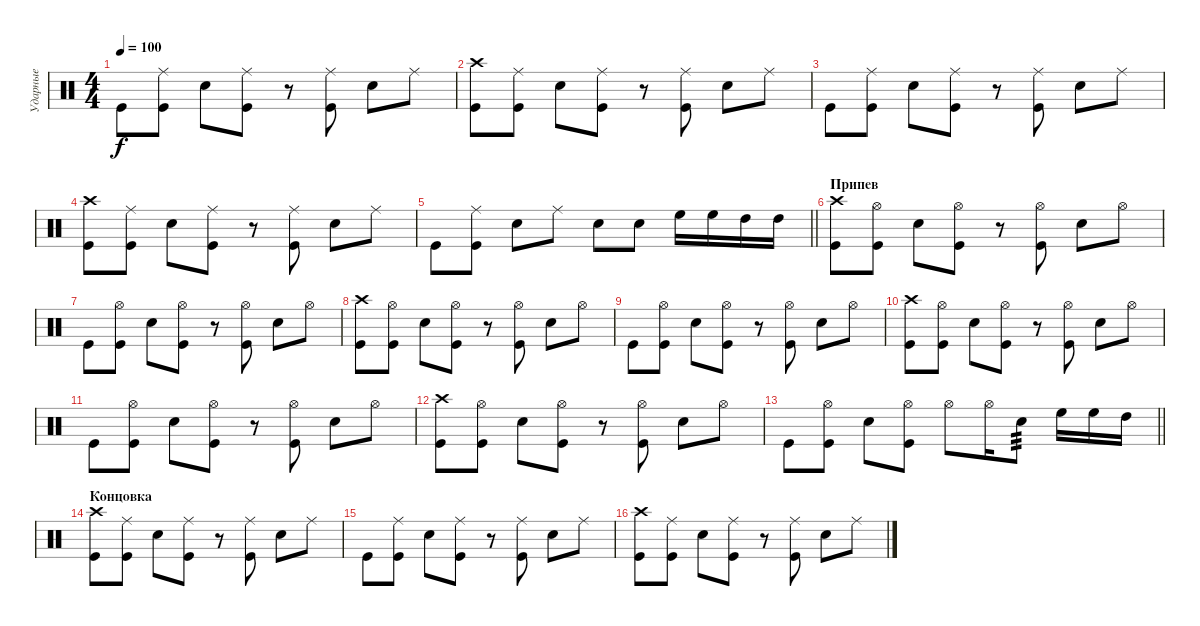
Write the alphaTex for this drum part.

\track ("Ударные" "Ударные") {instrument percussion}
\staff {score}
\articulation defaults
\ts (4 4)
\tempo 100
\clef neutral
\ks c "Kick (hit)".8{dy f}
("Kick (hit)" "Ride (middle)").8 "Snare (hit) 2".8 ("Ride (middle)" "Kick (hit)").8 r.8 ("Ride (middle)" "Kick (hit)").8 "Snare (hit) 2".8 "Ride (middle)".8 |
("Kick (hit)" "Crash high (hit)").8 ("Kick (hit)" "Ride (middle)").8 "Snare (hit) 2".8 ("Ride (middle)" "Kick (hit)").8 r.8 ("Ride (middle)" "Kick (hit)").8 "Snare (hit) 2".8 "Ride (middle)".8 |
"Kick (hit)".8 ("Kick (hit)" "Ride (middle)").8 "Snare (hit) 2".8 ("Ride (middle)" "Kick (hit)").8 r.8 ("Ride (middle)" "Kick (hit)").8 "Snare (hit) 2".8 "Ride (middle)".8 |
("Kick (hit)" "Crash high (hit)").8 ("Kick (hit)" "Ride (middle)").8 "Snare (hit) 2".8 ("Ride (middle)" "Kick (hit)").8 r.8 ("Ride (middle)" "Kick (hit)").8 "Snare (hit) 2".8 "Ride (middle)".8 |
\barLineRight lightlight "Kick (hit)".8
("Kick (hit)" "Ride (middle)").8 "Snare (hit) 2".8 "Ride (middle)".8 "Snare (hit) 2".8 "Snare (hit) 2".8 "High Floor Tom (hit)".16 "High Floor Tom (hit)".16 "High Tom (hit)".16 "High Tom (hit)".16 |
\section ("" "Припев")
("Crash high (hit)" "Kick (hit)").8 ("Hi-Hat (open)" "Kick (hit)").8 "Snare (hit) 2".8 ("Hi-Hat (open)" "Kick (hit)").8 r.8 ("Hi-Hat (open)" "Kick (hit)").8 "Snare (hit) 2".8 "Hi-Hat (open)".8 |
"Kick (hit)".8 ("Hi-Hat (open)" "Kick (hit)").8 "Snare (hit) 2".8 ("Hi-Hat (open)" "Kick (hit)").8 r.8 ("Hi-Hat (open)" "Kick (hit)").8 "Snare (hit) 2".8 "Hi-Hat (open)".8 |
("Crash high (hit)" "Kick (hit)").8 ("Hi-Hat (open)" "Kick (hit)").8 "Snare (hit) 2".8 ("Hi-Hat (open)" "Kick (hit)").8 r.8 ("Hi-Hat (open)" "Kick (hit)").8 "Snare (hit) 2".8 "Hi-Hat (open)".8 |
"Kick (hit)".8 ("Hi-Hat (open)" "Kick (hit)").8 "Snare (hit) 2".8 ("Hi-Hat (open)" "Kick (hit)").8 r.8 ("Hi-Hat (open)" "Kick (hit)").8 "Snare (hit) 2".8 "Hi-Hat (open)".8 |
("Crash high (hit)" "Kick (hit)").8 ("Hi-Hat (open)" "Kick (hit)").8 "Snare (hit) 2".8 ("Hi-Hat (open)" "Kick (hit)").8 r.8 ("Hi-Hat (open)" "Kick (hit)").8 "Snare (hit) 2".8 "Hi-Hat (open)".8 |
"Kick (hit)".8 ("Hi-Hat (open)" "Kick (hit)").8 "Snare (hit) 2".8 ("Hi-Hat (open)" "Kick (hit)").8 r.8 ("Hi-Hat (open)" "Kick (hit)").8 "Snare (hit) 2".8 "Hi-Hat (open)".8 |
("Crash high (hit)" "Kick (hit)").8 ("Hi-Hat (open)" "Kick (hit)").8 "Snare (hit) 2".8 ("Hi-Hat (open)" "Kick (hit)").8 r.8 ("Hi-Hat (open)" "Kick (hit)").8 "Snare (hit) 2".8 "Hi-Hat (open)".8 |
\barLineRight lightlight "Kick (hit)".8
("Hi-Hat (open)" "Kick (hit)").8 "Snare (hit) 2".8 ("Hi-Hat (open)" "Kick (hit)").8 "Hi-Hat (open)".8 "Hi-Hat (open)".16 "Snare (hit) 2".8{tp 3} "High Floor Tom (hit)".16 "High Floor Tom (hit)".16 "High Tom (hit)".16 |
\section ("" "Концовка")
("Kick (hit)" "Crash high (hit)").8 ("Kick (hit)" "Ride (middle)").8 "Snare (hit) 2".8 ("Ride (middle)" "Kick (hit)").8 r.8 ("Ride (middle)" "Kick (hit)").8 "Snare (hit) 2".8 "Ride (middle)".8 |
"Kick (hit)".8 ("Kick (hit)" "Ride (middle)").8 "Snare (hit) 2".8 ("Ride (middle)" "Kick (hit)").8 r.8 ("Ride (middle)" "Kick (hit)").8 "Snare (hit) 2".8 "Ride (middle)".8 |
("Kick (hit)" "Crash high (hit)").8 ("Kick (hit)" "Ride (middle)").8 "Snare (hit) 2".8 ("Ride (middle)" "Kick (hit)").8 r.8 ("Ride (middle)" "Kick (hit)").8 "Snare (hit) 2".8 "Ride (middle)".8
